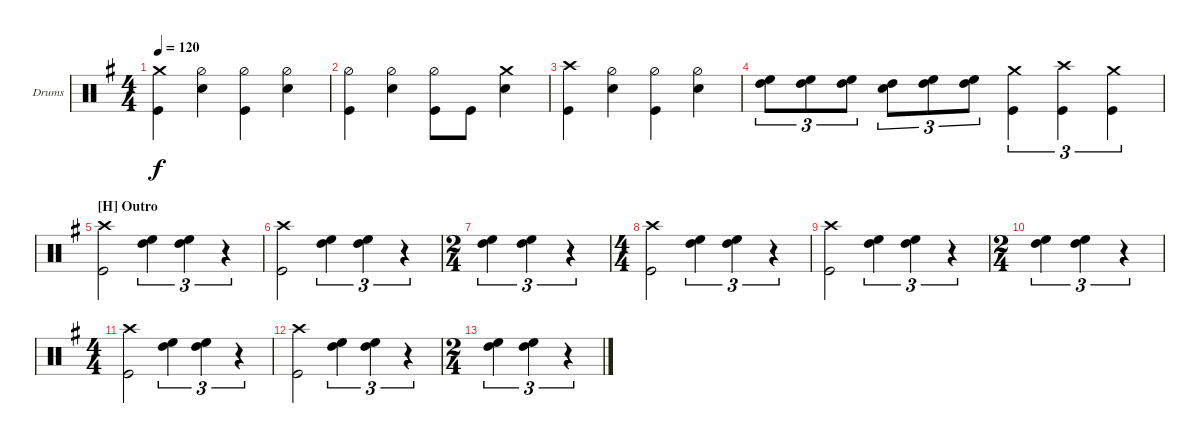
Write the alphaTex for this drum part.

\defaultSystemsLayout 4
\bracketExtendMode groupsimilarinstruments
\firstSystemTrackNameOrientation horizontal
\otherSystemsTrackNameOrientation horizontal
\track ("Drumkit" "Drums") {multiBarRest instrument percussion}
\staff {score}
\articulation defaults
\ts (4 4)
\tempo 120
\clef neutral
\ks g
("Crash medium (hit)" "Kick (hit)").4{dy f} ("Hi-Hat (half)" "Snare (hit) 2").4 ("Hi-Hat (half)" "Kick (hit)").4 ("Hi-Hat (half)" "Snare (hit) 2").4 |
("Hi-Hat (half)" "Kick (hit)").4 ("Hi-Hat (half)" "Snare (hit) 2").4 ("Hi-Hat (half)" "Kick (hit)").8 "Kick (hit)".8 ("Crash medium (hit)" "Snare (hit) 2").4 |
("Crash high (hit)" "Kick (hit)").4 ("Hi-Hat (half)" "Snare (hit) 2").4 ("Hi-Hat (half)" "Kick (hit)").4 ("Hi-Hat (half)" "Snare (hit) 2").4 |
("High Floor Tom (hit)" "High Tom (hit)").8{tu (3 2)} ("High Floor Tom (hit)" "High Tom (hit)").8{tu (3 2)} ("High Floor Tom (hit)" "High Tom (hit)").8{tu (3 2)} ("Snare (hit) 2" "High Tom (hit)").8{tu (3 2)} ("High Floor Tom (hit)" "High Tom (hit)").8{tu (3 2)} ("High Floor Tom (hit)" "High Tom (hit)").8{tu (3 2)} ("Crash medium (hit)" "Kick (hit)").4{tu (3 2)} ("Crash high (hit)" "Kick (hit)").4{tu (3 2)} ("Crash medium (hit)" "Kick (hit)").4{tu (3 2)} |
\section ("H" "Outro")
("Crash high (hit)" "Kick (hit)").2 ("High Floor Tom (hit)" "High Tom (hit)").4{tu (3 2)} ("High Floor Tom (hit)" "High Tom (hit)").4{tu (3 2)} r.4{tu (3 2)} |
("Crash high (hit)" "Kick (hit)").2 ("High Floor Tom (hit)" "High Tom (hit)").4{tu (3 2)} ("High Floor Tom (hit)" "High Tom (hit)").4{tu (3 2)} r.4{tu (3 2)} |
\ts (2 4)
("High Floor Tom (hit)" "High Tom (hit)").4{tu (3 2)} ("High Floor Tom (hit)" "High Tom (hit)").4{tu (3 2)} r.4{tu (3 2)} |
\ts (4 4)
("Crash high (hit)" "Kick (hit)").2 ("High Floor Tom (hit)" "High Tom (hit)").4{tu (3 2)} ("High Floor Tom (hit)" "High Tom (hit)").4{tu (3 2)} r.4{tu (3 2)} |
("Crash high (hit)" "Kick (hit)").2 ("High Floor Tom (hit)" "High Tom (hit)").4{tu (3 2)} ("High Floor Tom (hit)" "High Tom (hit)").4{tu (3 2)} r.4{tu (3 2)} |
\ts (2 4)
("High Floor Tom (hit)" "High Tom (hit)").4{tu (3 2)} ("High Floor Tom (hit)" "High Tom (hit)").4{tu (3 2)} r.4{tu (3 2)} |
\ts (4 4)
("Crash high (hit)" "Kick (hit)").2 ("High Floor Tom (hit)" "High Tom (hit)").4{tu (3 2)} ("High Floor Tom (hit)" "High Tom (hit)").4{tu (3 2)} r.4{tu (3 2)} |
("Crash high (hit)" "Kick (hit)").2 ("High Floor Tom (hit)" "High Tom (hit)").4{tu (3 2)} ("High Floor Tom (hit)" "High Tom (hit)").4{tu (3 2)} r.4{tu (3 2)} |
\ts (2 4)
("High Floor Tom (hit)" "High Tom (hit)").4{tu (3 2)} ("High Floor Tom (hit)" "High Tom (hit)").4{tu (3 2)} r.4{tu (3 2)}
